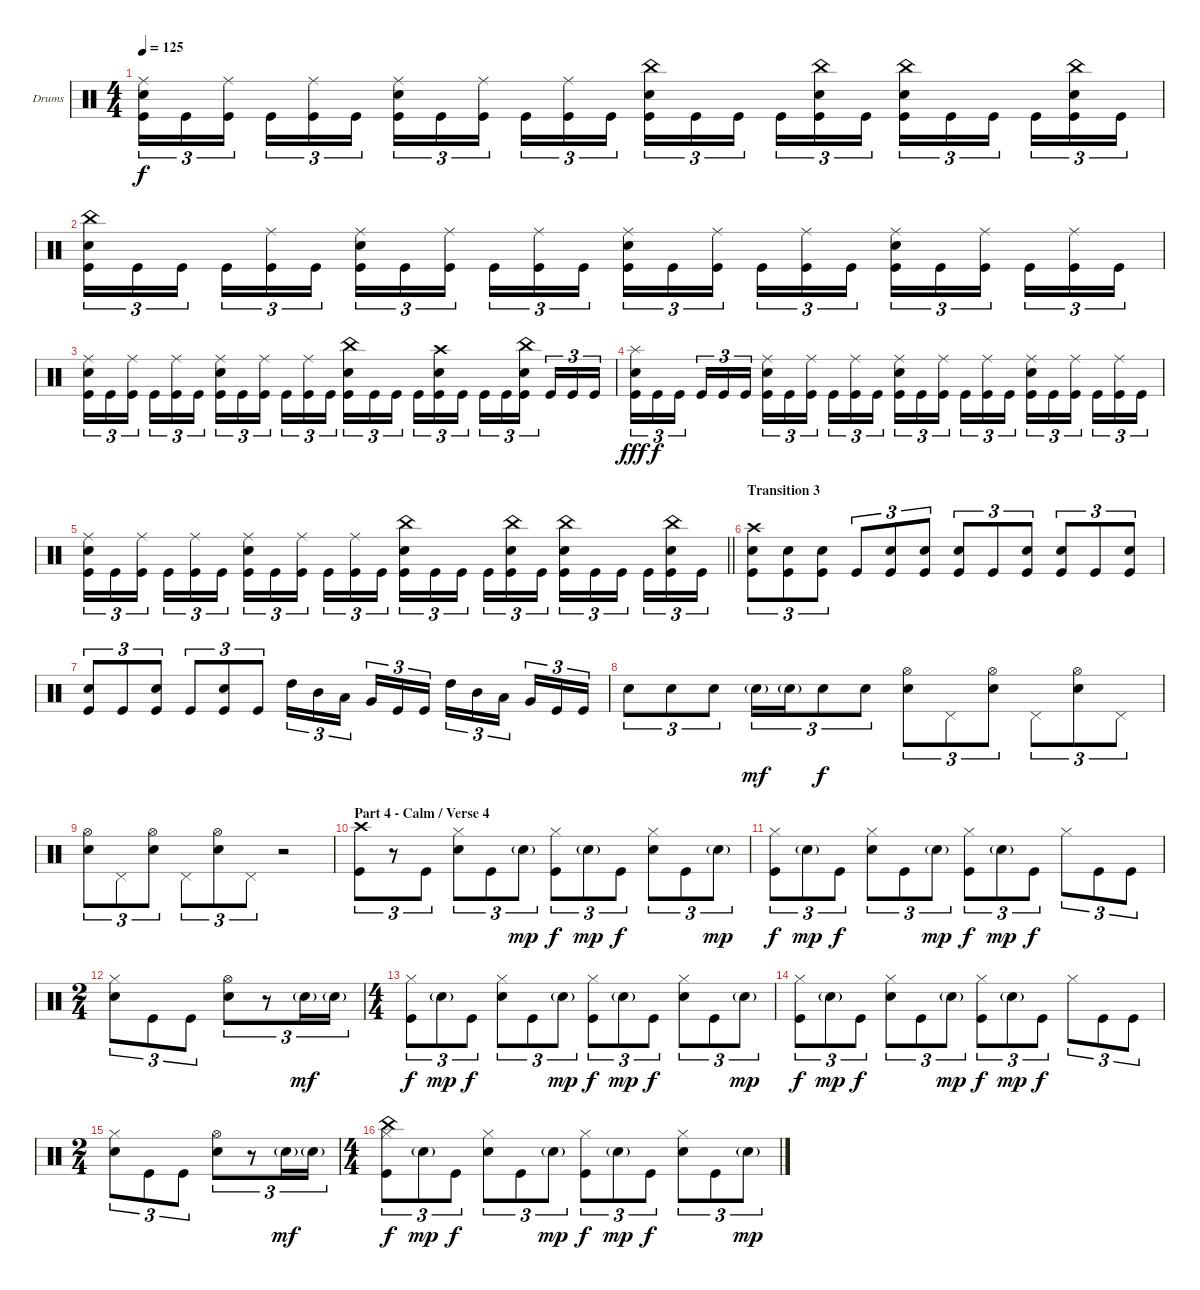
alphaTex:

\bracketExtendMode nobrackets
\firstSystemTrackNameOrientation horizontal
\otherSystemsTrackNameOrientation horizontal
\track ("Drumkit" "Drums") {instrument percussion}
\staff {score}
\articulation defaults
\ts (4 4)
\tempo 125
\clef neutral
\ks c
("Ride (middle)" "Snare (hit) 2" "Kick (hit)").16{tu (3 2) dy f} "Kick (hit)".16{tu (3 2)} ("Ride (middle)" "Kick (hit)").16{tu (3 2)} "Kick (hit)".16{tu (3 2)} ("Ride (middle)" "Kick (hit)").16{tu (3 2)} "Kick (hit)".16{tu (3 2)} ("Ride (middle)" "Snare (hit) 2" "Kick (hit)").16{tu (3 2)} "Kick (hit)".16{tu (3 2)} ("Ride (middle)" "Kick (hit)").16{tu (3 2)} "Kick (hit)".16{tu (3 2)} ("Ride (middle)" "Kick (hit)").16{tu (3 2)} "Kick (hit)".16{tu (3 2)} ("China (hit)" "Snare (hit) 2" "Kick (hit)").16{tu (3 2)} "Kick (hit)".16{tu (3 2)} "Kick (hit)".16{tu (3 2)} "Kick (hit)".16{tu (3 2)} ("China (hit)" "Snare (hit) 2" "Kick (hit)").16{tu (3 2)} "Kick (hit)".16{tu (3 2)} ("China (hit)" "Snare (hit) 2" "Kick (hit)").16{tu (3 2)} "Kick (hit)".16{tu (3 2)} "Kick (hit)".16{tu (3 2)} "Kick (hit)".16{tu (3 2)} ("China (hit)" "Snare (hit) 2" "Kick (hit)").16{tu (3 2)} "Kick (hit)".16{tu (3 2)} |
("China (hit)" "Snare (hit) 2" "Kick (hit)").16{tu (3 2)} "Kick (hit)".16{tu (3 2)} "Kick (hit)".16{tu (3 2)} "Kick (hit)".16{tu (3 2)} ("Ride (middle)" "Kick (hit)").16{tu (3 2)} "Kick (hit)".16{tu (3 2)} ("Ride (middle)" "Snare (hit) 2" "Kick (hit)").16{tu (3 2)} "Kick (hit)".16{tu (3 2)} ("Ride (middle)" "Kick (hit)").16{tu (3 2)} "Kick (hit)".16{tu (3 2)} ("Ride (middle)" "Kick (hit)").16{tu (3 2)} "Kick (hit)".16{tu (3 2)} ("Ride (middle)" "Snare (hit) 2" "Kick (hit)").16{tu (3 2)} "Kick (hit)".16{tu (3 2)} ("Ride (middle)" "Kick (hit)").16{tu (3 2)} "Kick (hit)".16{tu (3 2)} ("Ride (middle)" "Kick (hit)").16{tu (3 2)} "Kick (hit)".16{tu (3 2)} ("Ride (middle)" "Snare (hit) 2" "Kick (hit)").16{tu (3 2)} "Kick (hit)".16{tu (3 2)} ("Ride (middle)" "Kick (hit)").16{tu (3 2)} "Kick (hit)".16{tu (3 2)} ("Ride (middle)" "Kick (hit)").16{tu (3 2)} "Kick (hit)".16{tu (3 2)} |
("Ride (middle)" "Snare (hit) 2" "Kick (hit)").16{tu (3 2)} "Kick (hit)".16{tu (3 2)} ("Ride (middle)" "Kick (hit)").16{tu (3 2)} "Kick (hit)".16{tu (3 2)} ("Ride (middle)" "Kick (hit)").16{tu (3 2)} "Kick (hit)".16{tu (3 2)} ("Ride (middle)" "Snare (hit) 2" "Kick (hit)").16{tu (3 2)} "Kick (hit)".16{tu (3 2)} ("Ride (middle)" "Kick (hit)").16{tu (3 2)} "Kick (hit)".16{tu (3 2)} ("Ride (middle)" "Kick (hit)").16{tu (3 2)} "Kick (hit)".16{tu (3 2)} ("China (hit)" "Snare (hit) 2" "Kick (hit)").16{tu (3 2)} "Kick (hit)".16{tu (3 2)} "Kick (hit)".16{tu (3 2)} "Kick (hit)".16{tu (3 2)} ("Crash high (hit)" "Snare (hit) 2" "Kick (hit)").16{tu (3 2)} "Kick (hit)".16{tu (3 2)} "Kick (hit)".16{tu (3 2)} "Kick (hit)".16{tu (3 2)} ("China (hit)" "Snare (hit) 2" "Kick (hit)").16{tu (3 2)} "Kick (hit)".16{tu (3 2)} "Kick (hit)".16{tu (3 2)} "Kick (hit)".16{tu (3 2)} |
("Splash (hit)" "Snare (hit) 2" "Kick (hit)").16{tu (3 2) dy fff} "Kick (hit)".16{tu (3 2) dy f} "Kick (hit)".16{tu (3 2)} "Kick (hit)".16{tu (3 2)} "Kick (hit)".16{tu (3 2)} "Kick (hit)".16{tu (3 2)} ("Ride (middle)" "Snare (hit) 2" "Kick (hit)").16{tu (3 2)} "Kick (hit)".16{tu (3 2)} ("Ride (middle)" "Kick (hit)").16{tu (3 2)} "Kick (hit)".16{tu (3 2)} ("Ride (middle)" "Kick (hit)").16{tu (3 2)} "Kick (hit)".16{tu (3 2)} ("Ride (middle)" "Snare (hit) 2" "Kick (hit)").16{tu (3 2)} "Kick (hit)".16{tu (3 2)} ("Ride (middle)" "Kick (hit)").16{tu (3 2)} "Kick (hit)".16{tu (3 2)} ("Ride (middle)" "Kick (hit)").16{tu (3 2)} "Kick (hit)".16{tu (3 2)} ("Ride (middle)" "Snare (hit) 2" "Kick (hit)").16{tu (3 2)} "Kick (hit)".16{tu (3 2)} ("Ride (middle)" "Kick (hit)").16{tu (3 2)} "Kick (hit)".16{tu (3 2)} ("Ride (middle)" "Kick (hit)").16{tu (3 2)} "Kick (hit)".16{tu (3 2)} |
\barLineRight lightlight
("Ride (middle)" "Snare (hit) 2" "Kick (hit)").16{tu (3 2)} "Kick (hit)".16{tu (3 2)} ("Ride (middle)" "Kick (hit)").16{tu (3 2)} "Kick (hit)".16{tu (3 2)} ("Ride (middle)" "Kick (hit)").16{tu (3 2)} "Kick (hit)".16{tu (3 2)} ("Ride (middle)" "Snare (hit) 2" "Kick (hit)").16{tu (3 2)} "Kick (hit)".16{tu (3 2)} ("Ride (middle)" "Kick (hit)").16{tu (3 2)} "Kick (hit)".16{tu (3 2)} ("Ride (middle)" "Kick (hit)").16{tu (3 2)} "Kick (hit)".16{tu (3 2)} ("China (hit)" "Snare (hit) 2" "Kick (hit)").16{tu (3 2)} "Kick (hit)".16{tu (3 2)} "Kick (hit)".16{tu (3 2)} "Kick (hit)".16{tu (3 2)} ("China (hit)" "Snare (hit) 2" "Kick (hit)").16{tu (3 2)} "Kick (hit)".16{tu (3 2)} ("China (hit)" "Snare (hit) 2" "Kick (hit)").16{tu (3 2)} "Kick (hit)".16{tu (3 2)} "Kick (hit)".16{tu (3 2)} "Kick (hit)".16{tu (3 2)} ("China (hit)" "Snare (hit) 2" "Kick (hit)").16{tu (3 2)} "Kick (hit)".16{tu (3 2)} |
\section ("" "Transition 3")
("Crash high (hit)" "Snare (hit) 2" "Kick (hit)").8{tu (3 2)} ("Snare (hit) 2" "Kick (hit)").8{tu (3 2)} ("Snare (hit) 2" "Kick (hit)").8{tu (3 2)} "Kick (hit)".8{tu (3 2)} ("Snare (hit) 2" "Kick (hit)").8{tu (3 2)} ("Snare (hit) 2" "Kick (hit)").8{tu (3 2)} ("Snare (hit) 2" "Kick (hit)").8{tu (3 2)} "Kick (hit)".8{tu (3 2)} ("Snare (hit) 2" "Kick (hit)").8{tu (3 2)} ("Snare (hit) 2" "Kick (hit)").8{tu (3 2)} "Kick (hit)".8{tu (3 2)} ("Snare (hit) 2" "Kick (hit)").8{tu (3 2)} |
("Snare (hit) 2" "Kick (hit)").8{tu (3 2)} "Kick (hit)".8{tu (3 2)} ("Snare (hit) 2" "Kick (hit)").8{tu (3 2)} "Kick (hit)".8{tu (3 2)} ("Snare (hit) 2" "Kick (hit)").8{tu (3 2)} "Kick (hit)".8{tu (3 2)} "High Tom (hit)".16{tu (3 2)} "Mid Tom (hit)".16{tu (3 2)} "Low Tom (hit)".16{tu (3 2)} "Very Low Tom (hit)".16{tu (3 2)} "Kick (hit)".16{tu (3 2)} "Kick (hit)".16{tu (3 2)} "High Tom (hit)".16{tu (3 2)} "Mid Tom (hit)".16{tu (3 2)} "Low Tom (hit)".16{tu (3 2)} "Very Low Tom (hit)".16{tu (3 2)} "Kick (hit)".16{tu (3 2)} "Kick (hit)".16{tu (3 2)} |
"Snare (hit) 2".8{tu (3 2)} "Snare (hit) 2".8{tu (3 2)} "Snare (hit) 2".8{tu (3 2)} "Snare (hit) 2"{g}.16{tu (3 2) dy mf} "Snare (hit) 2"{g}.16{tu (3 2)} "Snare (hit) 2".8{tu (3 2) dy f} "Snare (hit) 2".8{tu (3 2)} ("Hi-Hat (open)" "Snare (hit) 2").8{tu (3 2)} "Pedal Hi-Hat (hit)".8{tu (3 2)} ("Hi-Hat (open)" "Snare (hit) 2").8{tu (3 2)} "Pedal Hi-Hat (hit)".8{tu (3 2)} ("Hi-Hat (open)" "Snare (hit) 2").8{tu (3 2)} "Pedal Hi-Hat (hit)".8{tu (3 2)} |
("Hi-Hat (open)" "Snare (hit) 2").8{tu (3 2)} "Pedal Hi-Hat (hit)".8{tu (3 2)} ("Hi-Hat (open)" "Snare (hit) 2").8{tu (3 2)} "Pedal Hi-Hat (hit)".8{tu (3 2)} ("Hi-Hat (open)" "Snare (hit) 2").8{tu (3 2)} "Pedal Hi-Hat (hit)".8{tu (3 2)} r.2 |
\section ("" "Part 4 - Calm / Verse 4")
("Crash high (hit)" "Kick (hit)").8{tu (3 2)} r.8{tu (3 2)} "Kick (hit)".8{tu (3 2)} ("Hi-Hat (closed)" "Snare (hit) 2").8{tu (3 2)} "Kick (hit)".8{tu (3 2)} "Snare (hit) 2"{g}.8{tu (3 2) dy mp} ("Hi-Hat (closed)" "Kick (hit)").8{tu (3 2) dy f} "Snare (hit) 2"{g}.8{tu (3 2) dy mp} "Kick (hit)".8{tu (3 2) dy f} ("Hi-Hat (closed)" "Snare (hit) 2").8{tu (3 2)} "Kick (hit)".8{tu (3 2)} "Snare (hit) 2"{g}.8{tu (3 2) dy mp} |
("Hi-Hat (closed)" "Kick (hit)").8{tu (3 2) dy f} "Snare (hit) 2"{g}.8{tu (3 2) dy mp} "Kick (hit)".8{tu (3 2) dy f} ("Hi-Hat (closed)" "Snare (hit) 2").8{tu (3 2)} "Kick (hit)".8{tu (3 2)} "Snare (hit) 2"{g}.8{tu (3 2) dy mp} ("Hi-Hat (closed)" "Kick (hit)").8{tu (3 2) dy f} "Snare (hit) 2"{g}.8{tu (3 2) dy mp} "Kick (hit)".8{tu (3 2) dy f} "Hi-Hat (closed)".8{tu (3 2)} "Kick (hit)".8{tu (3 2)} "Kick (hit)".8{tu (3 2)} |
\ts (2 4)
\beaming (8 2 2)
("Hi-Hat (closed)" "Snare (hit) 2").8{tu (3 2)} "Kick (hit)".8{tu (3 2)} "Kick (hit)".8{tu (3 2)} ("Hi-Hat (open)" "Snare (hit) 2").8{tu (3 2)} r.8{tu (3 2)} "Snare (hit) 2"{g}.16{tu (3 2) dy mf} "Snare (hit) 2"{g}.16{tu (3 2)} |
\ts (4 4)
\beaming (8 2 2 4)
("Hi-Hat (closed)" "Kick (hit)").8{tu (3 2) dy f} "Snare (hit) 2"{g}.8{tu (3 2) dy mp} "Kick (hit)".8{tu (3 2) dy f} ("Hi-Hat (closed)" "Snare (hit) 2").8{tu (3 2)} "Kick (hit)".8{tu (3 2)} "Snare (hit) 2"{g}.8{tu (3 2) dy mp} ("Hi-Hat (closed)" "Kick (hit)").8{tu (3 2) dy f} "Snare (hit) 2"{g}.8{tu (3 2) dy mp} "Kick (hit)".8{tu (3 2) dy f} ("Hi-Hat (closed)" "Snare (hit) 2").8{tu (3 2)} "Kick (hit)".8{tu (3 2)} "Snare (hit) 2"{g}.8{tu (3 2) dy mp} |
("Hi-Hat (closed)" "Kick (hit)").8{tu (3 2) dy f} "Snare (hit) 2"{g}.8{tu (3 2) dy mp} "Kick (hit)".8{tu (3 2) dy f} ("Hi-Hat (closed)" "Snare (hit) 2").8{tu (3 2)} "Kick (hit)".8{tu (3 2)} "Snare (hit) 2"{g}.8{tu (3 2) dy mp} ("Hi-Hat (closed)" "Kick (hit)").8{tu (3 2) dy f} "Snare (hit) 2"{g}.8{tu (3 2) dy mp} "Kick (hit)".8{tu (3 2) dy f} "Hi-Hat (closed)".8{tu (3 2)} "Kick (hit)".8{tu (3 2)} "Kick (hit)".8{tu (3 2)} |
\ts (2 4)
\beaming (8 2 2)
("Hi-Hat (closed)" "Snare (hit) 2").8{tu (3 2)} "Kick (hit)".8{tu (3 2)} "Kick (hit)".8{tu (3 2)} ("Hi-Hat (open)" "Snare (hit) 2").8{tu (3 2)} r.8{tu (3 2)} "Snare (hit) 2"{g}.16{tu (3 2) dy mf} "Snare (hit) 2"{g}.16{tu (3 2)} |
\ts (4 4)
\beaming (8 2 2 4)
("Hi-Hat (closed)" "China (hit)" "Kick (hit)").8{tu (3 2) dy f} "Snare (hit) 2"{g}.8{tu (3 2) dy mp} "Kick (hit)".8{tu (3 2) dy f} ("Hi-Hat (closed)" "Snare (hit) 2").8{tu (3 2)} "Kick (hit)".8{tu (3 2)} "Snare (hit) 2"{g}.8{tu (3 2) dy mp} ("Hi-Hat (closed)" "Kick (hit)").8{tu (3 2) dy f} "Snare (hit) 2"{g}.8{tu (3 2) dy mp} "Kick (hit)".8{tu (3 2) dy f} ("Hi-Hat (closed)" "Snare (hit) 2").8{tu (3 2)} "Kick (hit)".8{tu (3 2)} "Snare (hit) 2"{g}.8{tu (3 2) dy mp}
